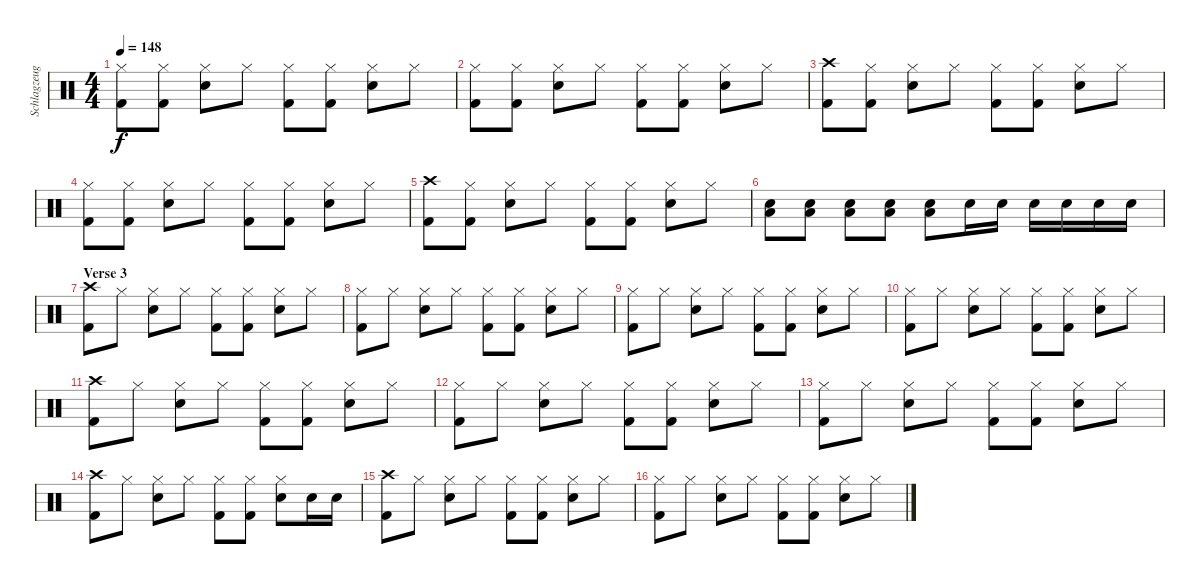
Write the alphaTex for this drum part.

\track ("Schlagzeug" "Schlagzeug") {instrument percussion}
\staff {score}
\articulation defaults
\ts (4 4)
\tempo 148
\clef neutral
\ks c
("Hi-Hat (closed)" "Kick (hit) 2").8{dy f} ("Hi-Hat (closed)" "Kick (hit) 2").8 ("Hi-Hat (closed)" "Electric Snare (hit)").8 "Hi-Hat (closed)".8 ("Hi-Hat (closed)" "Kick (hit) 2").8 ("Hi-Hat (closed)" "Kick (hit) 2").8 ("Hi-Hat (closed)" "Electric Snare (hit)").8 "Hi-Hat (closed)".8 |
("Hi-Hat (closed)" "Kick (hit) 2").8 ("Hi-Hat (closed)" "Kick (hit) 2").8 ("Hi-Hat (closed)" "Electric Snare (hit)").8 "Hi-Hat (closed)".8 ("Hi-Hat (closed)" "Kick (hit) 2").8 ("Hi-Hat (closed)" "Kick (hit) 2").8 ("Hi-Hat (closed)" "Electric Snare (hit)").8 "Hi-Hat (closed)".8 |
("Crash high (hit)" "Kick (hit) 2").8 ("Hi-Hat (closed)" "Kick (hit) 2").8 ("Hi-Hat (closed)" "Electric Snare (hit)").8 "Hi-Hat (closed)".8 ("Hi-Hat (closed)" "Kick (hit) 2").8 ("Hi-Hat (closed)" "Kick (hit) 2").8 ("Hi-Hat (closed)" "Electric Snare (hit)").8 "Hi-Hat (closed)".8 |
("Hi-Hat (closed)" "Kick (hit) 2").8 ("Hi-Hat (closed)" "Kick (hit) 2").8 ("Hi-Hat (closed)" "Electric Snare (hit)").8 "Hi-Hat (closed)".8 ("Hi-Hat (closed)" "Kick (hit) 2").8 ("Hi-Hat (closed)" "Kick (hit) 2").8 ("Hi-Hat (closed)" "Electric Snare (hit)").8 "Hi-Hat (closed)".8 |
("Crash high (hit)" "Kick (hit) 2").8 ("Hi-Hat (closed)" "Kick (hit) 2").8 ("Hi-Hat (closed)" "Electric Snare (hit)").8 "Hi-Hat (closed)".8 ("Hi-Hat (closed)" "Kick (hit) 2").8 ("Hi-Hat (closed)" "Kick (hit) 2").8 ("Hi-Hat (closed)" "Electric Snare (hit)").8 "Hi-Hat (closed)".8 |
("Electric Snare (hit)" "Low Floor Tom (hit)").8 ("Electric Snare (hit)" "Low Floor Tom (hit)").8 ("Electric Snare (hit)" "Low Floor Tom (hit)").8 ("Electric Snare (hit)" "Low Floor Tom (hit)").8 ("Electric Snare (hit)" "Low Floor Tom (hit)").8 "Electric Snare (hit)".16 "Electric Snare (hit)".16 "Electric Snare (hit)".16 "Electric Snare (hit)".16 "Electric Snare (hit)".16 "Electric Snare (hit)".16 |
\section ("" "Verse 3")
("Crash high (hit)" "Kick (hit) 2").8 "Hi-Hat (closed)".8 ("Hi-Hat (closed)" "Electric Snare (hit)").8 "Hi-Hat (closed)".8 ("Hi-Hat (closed)" "Kick (hit) 2").8 ("Hi-Hat (closed)" "Kick (hit) 2").8 ("Hi-Hat (closed)" "Electric Snare (hit)").8 "Hi-Hat (closed)".8 |
("Hi-Hat (closed)" "Kick (hit) 2").8 "Hi-Hat (closed)".8 ("Hi-Hat (closed)" "Electric Snare (hit)").8 "Hi-Hat (closed)".8 ("Hi-Hat (closed)" "Kick (hit) 2").8 ("Hi-Hat (closed)" "Kick (hit) 2").8 ("Hi-Hat (closed)" "Electric Snare (hit)").8 "Hi-Hat (closed)".8 |
("Hi-Hat (closed)" "Kick (hit) 2").8 "Hi-Hat (closed)".8 ("Hi-Hat (closed)" "Electric Snare (hit)").8 "Hi-Hat (closed)".8 ("Hi-Hat (closed)" "Kick (hit) 2").8 ("Hi-Hat (closed)" "Kick (hit) 2").8 ("Hi-Hat (closed)" "Electric Snare (hit)").8 "Hi-Hat (closed)".8 |
("Hi-Hat (closed)" "Kick (hit) 2").8 "Hi-Hat (closed)".8 ("Hi-Hat (closed)" "Electric Snare (hit)").8 "Hi-Hat (closed)".8 ("Hi-Hat (closed)" "Kick (hit) 2").8 ("Hi-Hat (closed)" "Kick (hit) 2").8 ("Hi-Hat (closed)" "Electric Snare (hit)").8 "Hi-Hat (closed)".8 |
("Crash high (hit)" "Kick (hit) 2").8 "Hi-Hat (closed)".8 ("Hi-Hat (closed)" "Electric Snare (hit)").8 "Hi-Hat (closed)".8 ("Hi-Hat (closed)" "Kick (hit) 2").8 ("Hi-Hat (closed)" "Kick (hit) 2").8 ("Hi-Hat (closed)" "Electric Snare (hit)").8 "Hi-Hat (closed)".8 |
("Hi-Hat (closed)" "Kick (hit) 2").8 "Hi-Hat (closed)".8 ("Hi-Hat (closed)" "Electric Snare (hit)").8 "Hi-Hat (closed)".8 ("Hi-Hat (closed)" "Kick (hit) 2").8 ("Hi-Hat (closed)" "Kick (hit) 2").8 ("Hi-Hat (closed)" "Electric Snare (hit)").8 "Hi-Hat (closed)".8 |
("Hi-Hat (closed)" "Kick (hit) 2").8 "Hi-Hat (closed)".8 ("Hi-Hat (closed)" "Electric Snare (hit)").8 "Hi-Hat (closed)".8 ("Hi-Hat (closed)" "Kick (hit) 2").8 ("Hi-Hat (closed)" "Kick (hit) 2").8 ("Hi-Hat (closed)" "Electric Snare (hit)").8 "Hi-Hat (closed)".8 |
("Crash high (hit)" "Kick (hit) 2").8 "Hi-Hat (closed)".8 ("Hi-Hat (closed)" "Electric Snare (hit)").8 "Hi-Hat (closed)".8 ("Hi-Hat (closed)" "Kick (hit) 2").8 ("Hi-Hat (closed)" "Kick (hit) 2").8 ("Hi-Hat (closed)" "Electric Snare (hit)").8 "Electric Snare (hit)".16 "Electric Snare (hit)".16 |
("Crash high (hit)" "Kick (hit) 2").8 "Hi-Hat (closed)".8 ("Hi-Hat (closed)" "Electric Snare (hit)").8 "Hi-Hat (closed)".8 ("Hi-Hat (closed)" "Kick (hit) 2").8 ("Hi-Hat (closed)" "Kick (hit) 2").8 ("Hi-Hat (closed)" "Electric Snare (hit)").8 "Hi-Hat (closed)".8 |
("Hi-Hat (closed)" "Kick (hit) 2").8 "Hi-Hat (closed)".8 ("Hi-Hat (closed)" "Electric Snare (hit)").8 "Hi-Hat (closed)".8 ("Hi-Hat (closed)" "Kick (hit) 2").8 ("Hi-Hat (closed)" "Kick (hit) 2").8 ("Hi-Hat (closed)" "Electric Snare (hit)").8 "Hi-Hat (closed)".8
